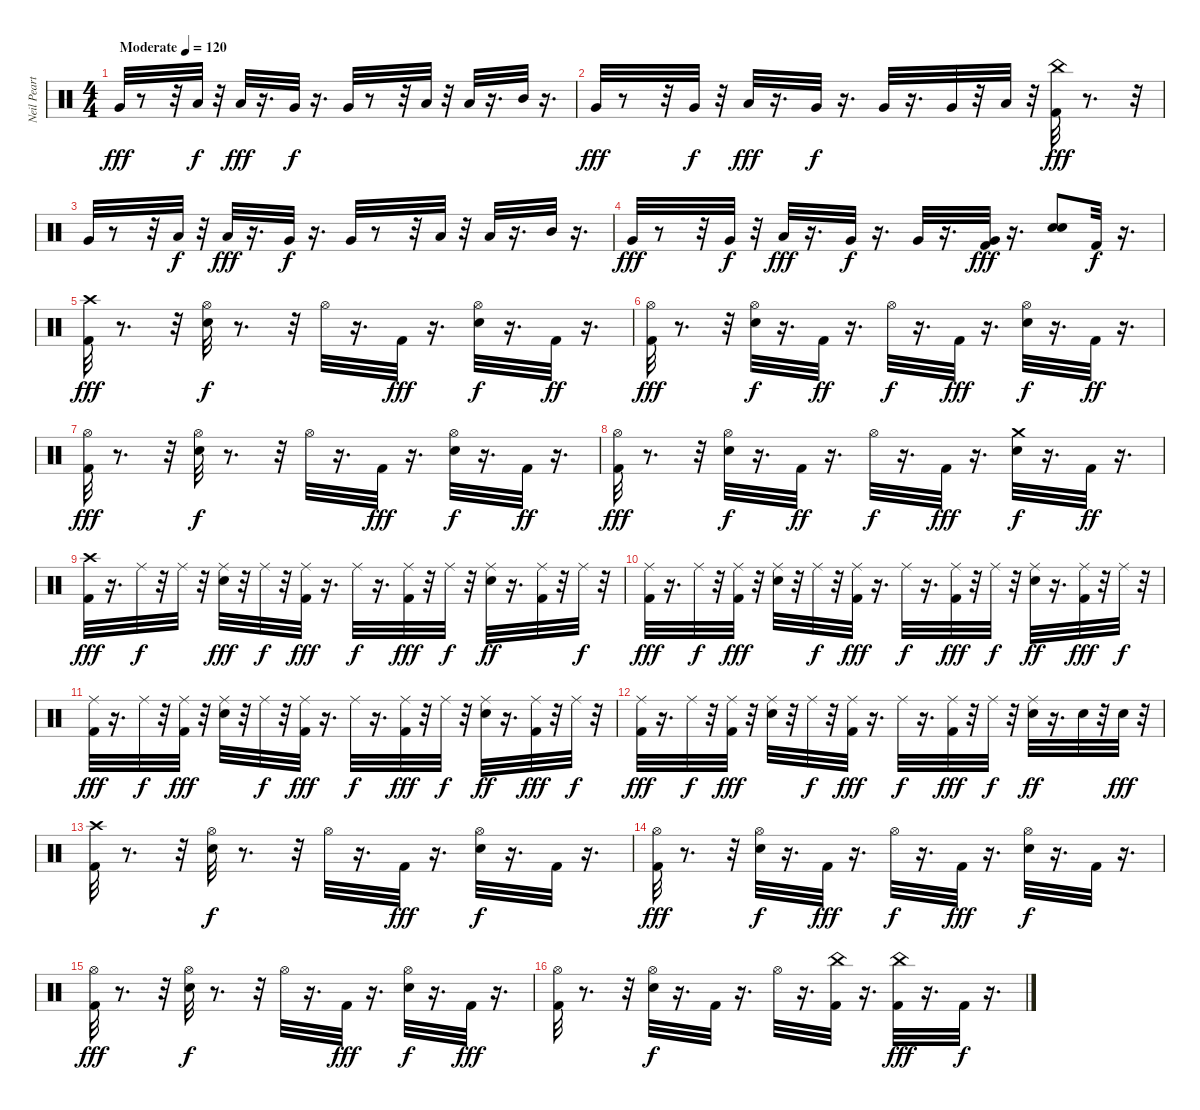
\track ("Neil Peart" "Neil Peart") {instrument percussion}
\staff {score}
\articulation defaults
\ts (4 4)
\tempo (120 "Moderate")
\clef neutral
\ks c "Very Low Tom (hit)".32{dy fff}
r.8 r.32 "Low Floor Tom (hit)".32{dy f} r.32 "Low Floor Tom (hit)".32{dy fff} r.16{d} "Very Low Tom (hit)".32{dy f} r.16{d} "Very Low Tom (hit)".32 r.8 r.32 "Low Tom (hit)".32 r.32 "Low Tom (hit)".32 r.16{d} "Mid Tom (hit)".32 r.16{d} |
"Very Low Tom (hit)".32{dy fff} r.8 r.32 "Very Low Tom (hit)".32{dy f} r.32 "Low Floor Tom (hit)".32{dy fff} r.16{d} "Very Low Tom (hit)".32{dy f} r.16{d} "Very Low Tom (hit)".32 r.16{d} "Very Low Tom (hit)".32 r.32 "Low Tom (hit)".32 r.32 ("Kick (hit) 2" "China (hit)").32{dy fff} r.8{d} r.32 |
"Very Low Tom (hit)".32 r.8 r.32 "Low Floor Tom (hit)".32{dy f} r.32 "Low Floor Tom (hit)".32{dy fff} r.16{d} "Very Low Tom (hit)".32{dy f} r.16{d} "Very Low Tom (hit)".32 r.8 r.32 "Low Tom (hit)".32 r.32 "Low Tom (hit)".32 r.16{d} "Mid Tom (hit)".32 r.16{d} |
"Very Low Tom (hit)".32{dy fff} r.8 r.32 "Very Low Tom (hit)".32{dy f} r.32 "Low Floor Tom (hit)".32{dy fff} r.16{d} "Very Low Tom (hit)".32{dy f} r.16{d} "Very Low Tom (hit)".32 r.16{d} ("Kick (hit) 2" "Very Low Tom (hit)").32{dy fff} r.16{d} ("Snare (hit) 2" "Snare (hit) 2").8 "Kick (hit) 2".32{dy f} r.16{d} |
("Kick (hit) 2" "Crash high (hit)").32{dy fff} r.8{d} r.32 ("Snare (hit) 2" "Hi-Hat (open)").32{dy f} r.8{d} r.32 "Hi-Hat (open)".32 r.16{d} "Kick (hit) 2".32{dy fff} r.16{d} ("Snare (hit) 2" "Hi-Hat (open)").32{dy f} r.16{d} "Kick (hit) 2".32{dy ff} r.16{d} |
("Hi-Hat (open)" "Kick (hit) 2").32{dy fff} r.8{d} r.32 ("Hi-Hat (open)" "Snare (hit) 2").32{dy f} r.16{d} "Kick (hit) 2".32{dy ff} r.16{d} "Hi-Hat (open)".32{dy f} r.16{d} "Kick (hit) 2".32{dy fff} r.16{d} ("Hi-Hat (open)" "Snare (hit) 2").32{dy f} r.16{d} "Kick (hit) 2".32{dy ff} r.16{d} |
("Hi-Hat (open)" "Kick (hit) 2").32{dy fff} r.8{d} r.32 ("Hi-Hat (open)" "Snare (hit) 2").32{dy f} r.8{d} r.32 "Hi-Hat (open)".32 r.16{d} "Kick (hit) 2".32{dy fff} r.16{d} ("Hi-Hat (open)" "Snare (hit) 2").32{dy f} r.16{d} "Kick (hit) 2".32{dy ff} r.16{d} |
("Hi-Hat (open)" "Kick (hit) 2").32{dy fff} r.8{d} r.32 ("Hi-Hat (open)" "Snare (hit) 2").32{dy f} r.16{d} "Kick (hit) 2".32{dy ff} r.16{d} "Hi-Hat (open)".32{dy f} r.16{d} "Kick (hit) 2".32{dy fff} r.16{d} ("Crash medium (hit)" "Snare (hit) 2").32{dy f} r.16{d} "Kick (hit) 2".32{dy ff} r.16{d} |
("Crash high (hit)" "Kick (hit) 2").32{dy fff} r.16{d} "Ride (middle)".32{dy f} r.32 "Ride (middle)".32 r.32 ("Ride (middle)" "Snare (hit) 2").32{dy fff} r.32 "Ride (middle)".32{dy f} r.32 ("Ride (middle)" "Kick (hit) 2").32{dy fff} r.16{d} "Ride (middle)".32{dy f} r.16{d} ("Ride (middle)" "Kick (hit) 2").32{dy fff} r.32 "Ride (middle)".32{dy f} r.32 ("Ride (middle)" "Snare (hit) 2").32{dy ff} r.16{d} ("Ride (middle)" "Kick (hit) 2").32 r.32 "Ride (middle)".32{dy f} r.32 |
("Ride (middle)" "Kick (hit) 2").32{dy fff} r.16{d} "Ride (middle)".32{dy f} r.32 ("Ride (middle)" "Kick (hit) 2").32{dy fff} r.32 ("Ride (middle)" "Snare (hit) 2").32 r.32 "Ride (middle)".32{dy f} r.32 ("Ride (middle)" "Kick (hit) 2").32{dy fff} r.16{d} "Ride (middle)".32{dy f} r.16{d} ("Ride (middle)" "Kick (hit) 2").32{dy fff} r.32 "Ride (middle)".32{dy f} r.32 ("Ride (middle)" "Snare (hit) 2").32{dy ff} r.16{d} ("Ride (middle)" "Kick (hit) 2").32{dy fff} r.32 "Ride (middle)".32{dy f} r.32 |
("Ride (middle)" "Kick (hit) 2").32{dy fff} r.16{d} "Ride (middle)".32{dy f} r.32 ("Ride (middle)" "Kick (hit) 2").32{dy fff} r.32 ("Ride (middle)" "Snare (hit) 2").32 r.32 "Ride (middle)".32{dy f} r.32 ("Ride (middle)" "Kick (hit) 2").32{dy fff} r.16{d} "Ride (middle)".32{dy f} r.16{d} ("Ride (middle)" "Kick (hit) 2").32{dy fff} r.32 "Ride (middle)".32{dy f} r.32 ("Ride (middle)" "Snare (hit) 2").32{dy ff} r.16{d} ("Ride (middle)" "Kick (hit) 2").32{dy fff} r.32 "Ride (middle)".32{dy f} r.32 |
("Ride (middle)" "Kick (hit) 2").32{dy fff} r.16{d} "Ride (middle)".32{dy f} r.32 ("Ride (middle)" "Kick (hit) 2").32{dy fff} r.32 ("Ride (middle)" "Snare (hit) 2").32 r.32 "Ride (middle)".32{dy f} r.32 ("Ride (middle)" "Kick (hit) 2").32{dy fff} r.16{d} "Ride (middle)".32{dy f} r.16{d} ("Ride (middle)" "Kick (hit) 2").32{dy fff} r.32 "Ride (middle)".32{dy f} r.32 ("Ride (middle)" "Snare (hit) 2").32{dy ff} r.16{d} "Snare (hit) 2".32 r.32 "Snare (hit) 2".32{dy fff} r.32 |
("Crash high (hit)" "Kick (hit) 2").32 r.8{d} r.32 ("Hi-Hat (open)" "Snare (hit) 2").32{dy f} r.8{d} r.32 "Hi-Hat (open)".32 r.16{d} "Kick (hit) 2".32{dy fff} r.16{d} ("Hi-Hat (open)" "Snare (hit) 2").32{dy f} r.16{d} "Kick (hit) 2".32 r.16{d} |
("Hi-Hat (open)" "Kick (hit) 2").32{dy fff} r.8{d} r.32 ("Hi-Hat (open)" "Snare (hit) 2").32{dy f} r.16{d} "Kick (hit) 2".32{dy fff} r.16{d} "Hi-Hat (open)".32{dy f} r.16{d} "Kick (hit) 2".32{dy fff} r.16{d} ("Hi-Hat (open)" "Snare (hit) 2").32{dy f} r.16{d} "Kick (hit) 2".32 r.16{d} |
("Hi-Hat (open)" "Kick (hit) 2").32{dy fff} r.8{d} r.32 ("Hi-Hat (open)" "Snare (hit) 2").32{dy f} r.8{d} r.32 "Hi-Hat (open)".32 r.16{d} "Kick (hit) 2".32{dy fff} r.16{d} ("Hi-Hat (open)" "Snare (hit) 2").32{dy f} r.16{d} "Kick (hit) 2".32{dy fff} r.16{d} |
("Hi-Hat (open)" "Kick (hit) 2").32 r.8{d} r.32 ("Hi-Hat (open)" "Snare (hit) 2").32{dy f} r.16{d} "Kick (hit) 2".32 r.16{d} "Hi-Hat (open)".32 r.16{d} ("Kick (hit) 2" "China (hit)").32 r.16{d} ("Kick (hit) 2" "China (hit)").32{dy fff} r.16{d} "Kick (hit) 2".32{dy f} r.16{d}
